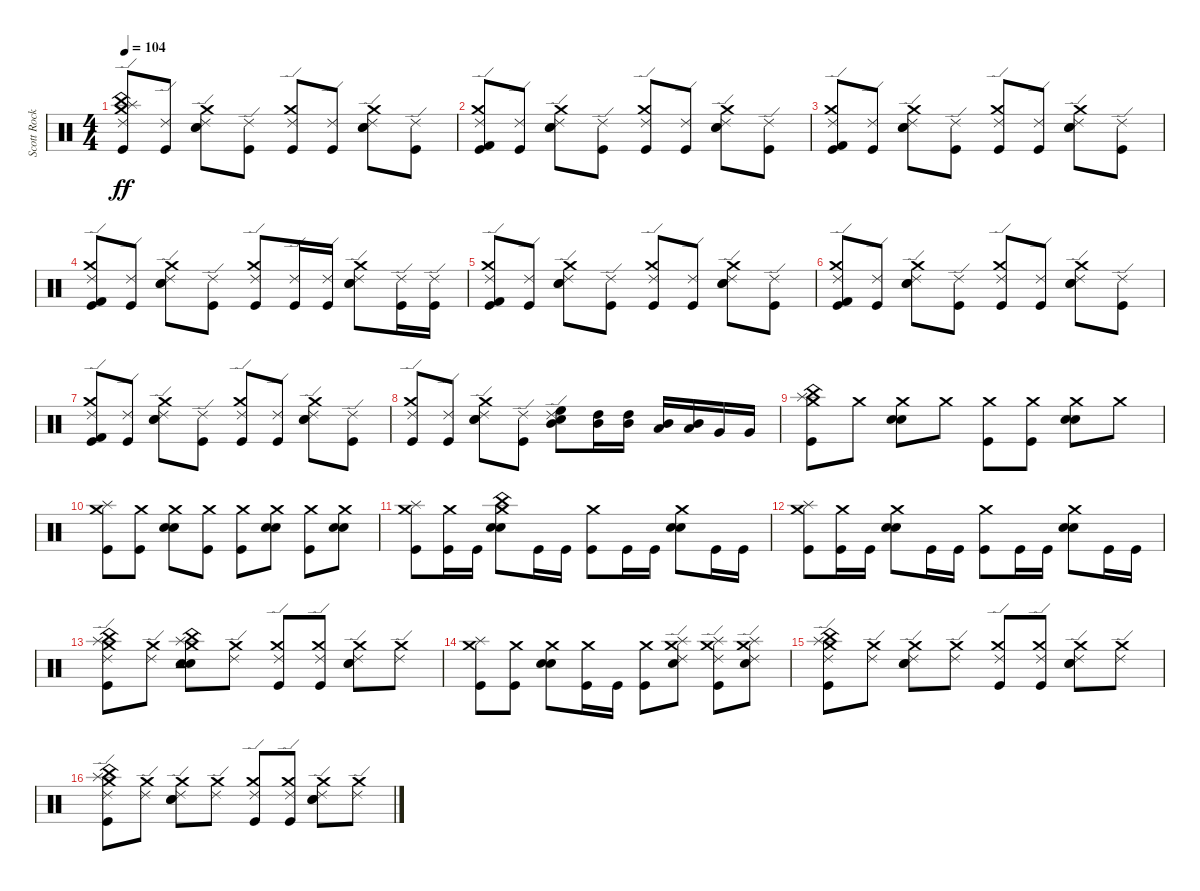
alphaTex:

\track ("Scott Rockenfield" "Scott Rock") {instrument percussion}
\staff {score}
\articulation defaults
\ts (4 4)
\tempo 104
\clef neutral
\ks c
("Kick (hit)" "China (hit)" "Splash (hit)" "Crash medium (hit)" "Ride (edge) 2").8{dy ff} ("Kick (hit)" "Ride (edge) 2").8 ("Snare (hit) 2" "Electric Snare (hit)" "Crash medium (hit)" "Ride (edge) 2").8 ("Kick (hit)" "Ride (edge) 2").8 ("Kick (hit)" "Crash medium (hit)" "Ride (edge) 2").8 ("Kick (hit)" "Ride (edge) 2").8 ("Snare (hit) 2" "Electric Snare (hit)" "Crash medium (hit)" "Ride (edge) 2").8 ("Kick (hit)" "Ride (edge) 2").8 |
("Kick (hit)" "Kick (hit) 2" "Crash medium (hit)" "Ride (edge) 2").8 ("Kick (hit)" "Ride (edge) 2").8 ("Snare (hit) 2" "Electric Snare (hit)" "Crash medium (hit)" "Ride (edge) 2").8 ("Kick (hit)" "Ride (edge) 2").8 ("Kick (hit)" "Crash medium (hit)" "Ride (edge) 2").8 ("Kick (hit)" "Ride (edge) 2").8 ("Snare (hit) 2" "Electric Snare (hit)" "Crash medium (hit)" "Ride (edge) 2").8 ("Kick (hit)" "Ride (edge) 2").8 |
("Kick (hit)" "Kick (hit) 2" "Crash medium (hit)" "Ride (edge) 2").8 ("Kick (hit)" "Ride (edge) 2").8 ("Snare (hit) 2" "Electric Snare (hit)" "Crash medium (hit)" "Ride (edge) 2").8 ("Kick (hit)" "Ride (edge) 2").8 ("Kick (hit)" "Crash medium (hit)" "Ride (edge) 2").8 ("Kick (hit)" "Ride (edge) 2").8 ("Snare (hit) 2" "Electric Snare (hit)" "Crash medium (hit)" "Ride (edge) 2").8 ("Kick (hit)" "Ride (edge) 2").8 |
("Kick (hit)" "Kick (hit) 2" "Crash medium (hit)" "Ride (edge) 2").8 ("Kick (hit)" "Ride (edge) 2").8 ("Snare (hit) 2" "Electric Snare (hit)" "Crash medium (hit)" "Ride (edge) 2").8 ("Kick (hit)" "Ride (edge) 2").8 ("Kick (hit)" "Crash medium (hit)" "Ride (edge) 2").8 ("Kick (hit)" "Ride (edge) 2").16 ("Kick (hit)" "Ride (edge) 2").16 ("Snare (hit) 2" "Electric Snare (hit)" "Crash medium (hit)" "Ride (edge) 2").8 ("Kick (hit)" "Ride (edge) 2").16 ("Kick (hit)" "Ride (edge) 2").16 |
("Kick (hit)" "Kick (hit) 2" "Crash medium (hit)" "Ride (edge) 2").8 ("Kick (hit)" "Ride (edge) 2").8 ("Snare (hit) 2" "Electric Snare (hit)" "Crash medium (hit)" "Ride (edge) 2").8 ("Kick (hit)" "Ride (edge) 2").8 ("Kick (hit)" "Crash medium (hit)" "Ride (edge) 2").8 ("Kick (hit)" "Ride (edge) 2").8 ("Snare (hit) 2" "Electric Snare (hit)" "Crash medium (hit)" "Ride (edge) 2").8 ("Kick (hit)" "Ride (edge) 2").8 |
("Kick (hit)" "Kick (hit) 2" "Crash medium (hit)" "Ride (edge) 2").8 ("Kick (hit)" "Ride (edge) 2").8 ("Snare (hit) 2" "Electric Snare (hit)" "Crash medium (hit)" "Ride (edge) 2").8 ("Kick (hit)" "Ride (edge) 2").8 ("Kick (hit)" "Crash medium (hit)" "Ride (edge) 2").8 ("Kick (hit)" "Ride (edge) 2").8 ("Snare (hit) 2" "Electric Snare (hit)" "Crash medium (hit)" "Ride (edge) 2").8 ("Kick (hit)" "Ride (edge) 2").8 |
("Kick (hit)" "Kick (hit) 2" "Crash medium (hit)" "Ride (edge) 2").8 ("Kick (hit)" "Ride (edge) 2").8 ("Snare (hit) 2" "Electric Snare (hit)" "Crash medium (hit)" "Ride (edge) 2").8 ("Kick (hit)" "Ride (edge) 2").8 ("Kick (hit)" "Crash medium (hit)" "Ride (edge) 2").8 ("Kick (hit)" "Ride (edge) 2").8 ("Snare (hit) 2" "Electric Snare (hit)" "Crash medium (hit)" "Ride (edge) 2").8 ("Kick (hit)" "Ride (edge) 2").8 |
("Kick (hit)" "Crash medium (hit)" "Ride (edge) 2").8 ("Kick (hit)" "Ride (edge) 2").8 ("Snare (hit) 2" "Electric Snare (hit)" "Crash medium (hit)" "Ride (edge) 2").8 ("Kick (hit)" "Ride (edge) 2").8 ("Snare (hit) 2" "Mid Tom (hit)" "High Floor Tom (hit)" "Ride (edge) 2").8 ("Mid Tom (hit)" "High Tom (hit)").16 ("Mid Tom (hit)" "High Tom (hit)").16 ("Low Tom (hit)" "Mid Tom (hit)").16 ("Low Tom (hit)" "Mid Tom (hit)").16 "Very Low Tom (hit)".16 "Very Low Tom (hit)".16 |
("Kick (hit)" "China (hit)" "Splash (hit)" "Crash medium (hit)").8 "Crash medium (hit)".8 ("Snare (hit) 2" "Electric Snare (hit)" "Crash medium (hit)").8 "Crash medium (hit)".8 ("Kick (hit)" "Crash medium (hit)").8 ("Kick (hit)" "Crash medium (hit)").8 ("Snare (hit) 2" "Electric Snare (hit)" "Crash medium (hit)").8 "Crash medium (hit)".8 |
("Kick (hit)" "Splash (hit)" "Crash medium (hit)").8 ("Kick (hit)" "Crash medium (hit)").8 ("Snare (hit) 2" "Electric Snare (hit)" "Crash medium (hit)").8 ("Kick (hit)" "Crash medium (hit)").8 ("Kick (hit)" "Crash medium (hit)").8 ("Snare (hit) 2" "Electric Snare (hit)" "Crash medium (hit)").8 ("Kick (hit)" "Crash medium (hit)").8 ("Snare (hit) 2" "Electric Snare (hit)" "Crash medium (hit)").8 |
("Kick (hit)" "Splash (hit)" "Crash medium (hit)").8 ("Kick (hit)" "Crash medium (hit)").16 "Kick (hit)".16 ("Snare (hit) 2" "Electric Snare (hit)" "China (hit)" "Crash medium (hit)").8 "Kick (hit)".16 "Kick (hit)".16 ("Kick (hit)" "Crash medium (hit)").8 "Kick (hit)".16 "Kick (hit)".16 ("Snare (hit) 2" "Electric Snare (hit)" "Crash medium (hit)").8 "Kick (hit)".16 "Kick (hit)".16 |
("Kick (hit)" "Splash (hit)" "Crash medium (hit)").8 ("Kick (hit)" "Crash medium (hit)").16 "Kick (hit)".16 ("Snare (hit) 2" "Electric Snare (hit)" "Crash medium (hit)").8 "Kick (hit)".16 "Kick (hit)".16 ("Kick (hit)" "Crash medium (hit)").8 "Kick (hit)".16 "Kick (hit)".16 ("Snare (hit) 2" "Electric Snare (hit)" "Crash medium (hit)").8 "Kick (hit)".16 "Kick (hit)".16 |
("Kick (hit)" "China (hit)" "Splash (hit)" "Crash medium (hit)" "Ride (edge) 2").8 ("Crash medium (hit)" "Ride (edge) 2").8 ("Snare (hit) 2" "Electric Snare (hit)" "China (hit)" "Tambourine (hit)" "Splash (hit)" "Crash medium (hit)").8 ("Crash medium (hit)" "Ride (edge) 2").8 ("Kick (hit)" "Crash medium (hit)" "Ride (edge) 2").8 ("Kick (hit)" "Crash medium (hit)" "Ride (edge) 2").8 ("Snare (hit) 2" "Electric Snare (hit)" "Crash medium (hit)" "Ride (edge) 2").8 ("Crash medium (hit)" "Ride (edge) 2").8 |
("Kick (hit)" "Splash (hit)" "Crash medium (hit)").8 ("Kick (hit)" "Crash medium (hit)").8 ("Snare (hit) 2" "Electric Snare (hit)" "Crash medium (hit)").8 ("Kick (hit)" "Crash medium (hit)").16 "Kick (hit)".16 ("Kick (hit)" "Crash medium (hit)").8 ("Electric Snare (hit)" "Splash (hit)" "Crash medium (hit)" "Ride (edge) 2").8 ("Kick (hit)" "Splash (hit)" "Crash medium (hit)" "Ride (edge) 2").8 ("Electric Snare (hit)" "Splash (hit)" "Crash medium (hit)" "Ride (edge) 2").8 |
("Kick (hit)" "China (hit)" "Splash (hit)" "Crash medium (hit)" "Ride (edge) 2").8 ("Crash medium (hit)" "Ride (edge) 2").8 ("Snare (hit) 2" "Electric Snare (hit)" "Crash medium (hit)" "Ride (edge) 2").8 ("Crash medium (hit)" "Ride (edge) 2").8 ("Kick (hit)" "Crash medium (hit)" "Ride (edge) 2").8 ("Kick (hit)" "Crash medium (hit)" "Ride (edge) 2").8 ("Snare (hit) 2" "Electric Snare (hit)" "Crash medium (hit)" "Ride (edge) 2").8 ("Crash medium (hit)" "Ride (edge) 2").8 |
("Kick (hit)" "China (hit)" "Splash (hit)" "Crash medium (hit)" "Ride (edge) 2").8 ("Crash medium (hit)" "Ride (edge) 2").8 ("Snare (hit) 2" "Electric Snare (hit)" "Crash medium (hit)" "Ride (edge) 2").8 ("Crash medium (hit)" "Ride (edge) 2").8 ("Kick (hit)" "Crash medium (hit)" "Ride (edge) 2").8 ("Kick (hit)" "Crash medium (hit)" "Ride (edge) 2").8 ("Snare (hit) 2" "Electric Snare (hit)" "Crash medium (hit)" "Ride (edge) 2").8 ("Crash medium (hit)" "Ride (edge) 2").8
